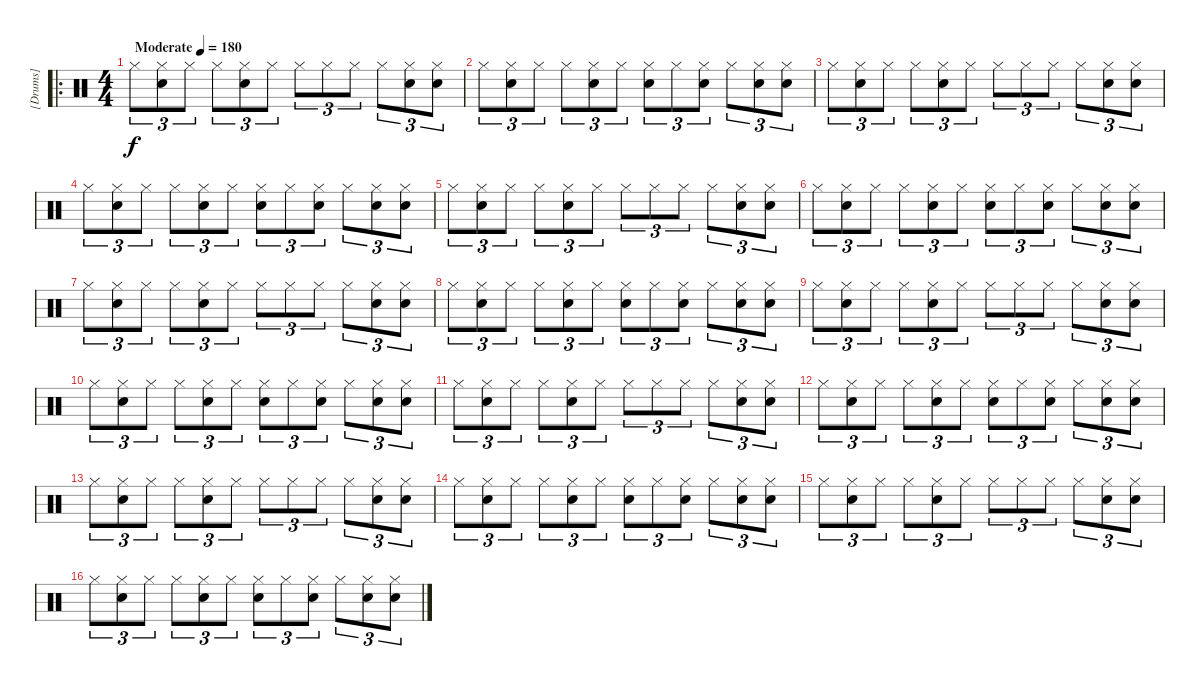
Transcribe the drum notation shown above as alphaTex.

\track ("[Drums]" "[Drums]") {instrument percussion}
\staff {score}
\articulation defaults
\ro
\ts (4 4)
\tempo (180 "Moderate")
\clef neutral
\ks c "Hi-Hat (closed)".8{tu (3 2) dy f}
("Hi-Hat (closed)" "Snare (hit) 2").8{tu (3 2)} "Hi-Hat (closed)".8{tu (3 2)} "Hi-Hat (closed)".8{tu (3 2)} ("Hi-Hat (closed)" "Snare (hit) 2").8{tu (3 2)} "Hi-Hat (closed)".8{tu (3 2)} "Hi-Hat (closed)".8{tu (3 2)} "Hi-Hat (closed)".8{tu (3 2)} "Hi-Hat (closed)".8{tu (3 2)} "Hi-Hat (closed)".8{tu (3 2)} ("Hi-Hat (closed)" "Snare (hit) 2").8{tu (3 2)} ("Hi-Hat (closed)" "Snare (hit) 2").8{tu (3 2)} |
"Hi-Hat (closed)".8{tu (3 2)} ("Hi-Hat (closed)" "Snare (hit) 2").8{tu (3 2)} "Hi-Hat (closed)".8{tu (3 2)} "Hi-Hat (closed)".8{tu (3 2)} ("Hi-Hat (closed)" "Snare (hit) 2").8{tu (3 2)} "Hi-Hat (closed)".8{tu (3 2)} ("Hi-Hat (closed)" "Snare (hit) 2").8{tu (3 2)} "Hi-Hat (closed)".8{tu (3 2)} ("Hi-Hat (closed)" "Snare (hit) 2").8{tu (3 2)} "Hi-Hat (closed)".8{tu (3 2)} ("Hi-Hat (closed)" "Snare (hit) 2").8{tu (3 2)} ("Hi-Hat (closed)" "Snare (hit) 2").8{tu (3 2)} |
"Hi-Hat (closed)".8{tu (3 2)} ("Hi-Hat (closed)" "Snare (hit) 2").8{tu (3 2)} "Hi-Hat (closed)".8{tu (3 2)} "Hi-Hat (closed)".8{tu (3 2)} ("Hi-Hat (closed)" "Snare (hit) 2").8{tu (3 2)} "Hi-Hat (closed)".8{tu (3 2)} "Hi-Hat (closed)".8{tu (3 2)} "Hi-Hat (closed)".8{tu (3 2)} "Hi-Hat (closed)".8{tu (3 2)} "Hi-Hat (closed)".8{tu (3 2)} ("Hi-Hat (closed)" "Snare (hit) 2").8{tu (3 2)} ("Hi-Hat (closed)" "Snare (hit) 2").8{tu (3 2)} |
"Hi-Hat (closed)".8{tu (3 2)} ("Hi-Hat (closed)" "Snare (hit) 2").8{tu (3 2)} "Hi-Hat (closed)".8{tu (3 2)} "Hi-Hat (closed)".8{tu (3 2)} ("Hi-Hat (closed)" "Snare (hit) 2").8{tu (3 2)} "Hi-Hat (closed)".8{tu (3 2)} ("Hi-Hat (closed)" "Snare (hit) 2").8{tu (3 2)} "Hi-Hat (closed)".8{tu (3 2)} ("Hi-Hat (closed)" "Snare (hit) 2").8{tu (3 2)} "Hi-Hat (closed)".8{tu (3 2)} ("Hi-Hat (closed)" "Snare (hit) 2").8{tu (3 2)} ("Hi-Hat (closed)" "Snare (hit) 2").8{tu (3 2)} |
"Hi-Hat (closed)".8{tu (3 2)} ("Hi-Hat (closed)" "Snare (hit) 2").8{tu (3 2)} "Hi-Hat (closed)".8{tu (3 2)} "Hi-Hat (closed)".8{tu (3 2)} ("Hi-Hat (closed)" "Snare (hit) 2").8{tu (3 2)} "Hi-Hat (closed)".8{tu (3 2)} "Hi-Hat (closed)".8{tu (3 2)} "Hi-Hat (closed)".8{tu (3 2)} "Hi-Hat (closed)".8{tu (3 2)} "Hi-Hat (closed)".8{tu (3 2)} ("Hi-Hat (closed)" "Snare (hit) 2").8{tu (3 2)} ("Hi-Hat (closed)" "Snare (hit) 2").8{tu (3 2)} |
"Hi-Hat (closed)".8{tu (3 2)} ("Hi-Hat (closed)" "Snare (hit) 2").8{tu (3 2)} "Hi-Hat (closed)".8{tu (3 2)} "Hi-Hat (closed)".8{tu (3 2)} ("Hi-Hat (closed)" "Snare (hit) 2").8{tu (3 2)} "Hi-Hat (closed)".8{tu (3 2)} ("Hi-Hat (closed)" "Snare (hit) 2").8{tu (3 2)} "Hi-Hat (closed)".8{tu (3 2)} ("Hi-Hat (closed)" "Snare (hit) 2").8{tu (3 2)} "Hi-Hat (closed)".8{tu (3 2)} ("Hi-Hat (closed)" "Snare (hit) 2").8{tu (3 2)} ("Hi-Hat (closed)" "Snare (hit) 2").8{tu (3 2)} |
"Hi-Hat (closed)".8{tu (3 2)} ("Hi-Hat (closed)" "Snare (hit) 2").8{tu (3 2)} "Hi-Hat (closed)".8{tu (3 2)} "Hi-Hat (closed)".8{tu (3 2)} ("Hi-Hat (closed)" "Snare (hit) 2").8{tu (3 2)} "Hi-Hat (closed)".8{tu (3 2)} "Hi-Hat (closed)".8{tu (3 2)} "Hi-Hat (closed)".8{tu (3 2)} "Hi-Hat (closed)".8{tu (3 2)} "Hi-Hat (closed)".8{tu (3 2)} ("Hi-Hat (closed)" "Snare (hit) 2").8{tu (3 2)} ("Hi-Hat (closed)" "Snare (hit) 2").8{tu (3 2)} |
"Hi-Hat (closed)".8{tu (3 2)} ("Hi-Hat (closed)" "Snare (hit) 2").8{tu (3 2)} "Hi-Hat (closed)".8{tu (3 2)} "Hi-Hat (closed)".8{tu (3 2)} ("Hi-Hat (closed)" "Snare (hit) 2").8{tu (3 2)} "Hi-Hat (closed)".8{tu (3 2)} ("Hi-Hat (closed)" "Snare (hit) 2").8{tu (3 2)} "Hi-Hat (closed)".8{tu (3 2)} ("Hi-Hat (closed)" "Snare (hit) 2").8{tu (3 2)} "Hi-Hat (closed)".8{tu (3 2)} ("Hi-Hat (closed)" "Snare (hit) 2").8{tu (3 2)} ("Hi-Hat (closed)" "Snare (hit) 2").8{tu (3 2)} |
"Hi-Hat (closed)".8{tu (3 2)} ("Hi-Hat (closed)" "Snare (hit) 2").8{tu (3 2)} "Hi-Hat (closed)".8{tu (3 2)} "Hi-Hat (closed)".8{tu (3 2)} ("Hi-Hat (closed)" "Snare (hit) 2").8{tu (3 2)} "Hi-Hat (closed)".8{tu (3 2)} "Hi-Hat (closed)".8{tu (3 2)} "Hi-Hat (closed)".8{tu (3 2)} "Hi-Hat (closed)".8{tu (3 2)} "Hi-Hat (closed)".8{tu (3 2)} ("Hi-Hat (closed)" "Snare (hit) 2").8{tu (3 2)} ("Hi-Hat (closed)" "Snare (hit) 2").8{tu (3 2)} |
"Hi-Hat (closed)".8{tu (3 2)} ("Hi-Hat (closed)" "Snare (hit) 2").8{tu (3 2)} "Hi-Hat (closed)".8{tu (3 2)} "Hi-Hat (closed)".8{tu (3 2)} ("Hi-Hat (closed)" "Snare (hit) 2").8{tu (3 2)} "Hi-Hat (closed)".8{tu (3 2)} ("Hi-Hat (closed)" "Snare (hit) 2").8{tu (3 2)} "Hi-Hat (closed)".8{tu (3 2)} ("Hi-Hat (closed)" "Snare (hit) 2").8{tu (3 2)} "Hi-Hat (closed)".8{tu (3 2)} ("Hi-Hat (closed)" "Snare (hit) 2").8{tu (3 2)} ("Hi-Hat (closed)" "Snare (hit) 2").8{tu (3 2)} |
"Hi-Hat (closed)".8{tu (3 2)} ("Hi-Hat (closed)" "Snare (hit) 2").8{tu (3 2)} "Hi-Hat (closed)".8{tu (3 2)} "Hi-Hat (closed)".8{tu (3 2)} ("Hi-Hat (closed)" "Snare (hit) 2").8{tu (3 2)} "Hi-Hat (closed)".8{tu (3 2)} "Hi-Hat (closed)".8{tu (3 2)} "Hi-Hat (closed)".8{tu (3 2)} "Hi-Hat (closed)".8{tu (3 2)} "Hi-Hat (closed)".8{tu (3 2)} ("Hi-Hat (closed)" "Snare (hit) 2").8{tu (3 2)} ("Hi-Hat (closed)" "Snare (hit) 2").8{tu (3 2)} |
"Hi-Hat (closed)".8{tu (3 2)} ("Hi-Hat (closed)" "Snare (hit) 2").8{tu (3 2)} "Hi-Hat (closed)".8{tu (3 2)} "Hi-Hat (closed)".8{tu (3 2)} ("Hi-Hat (closed)" "Snare (hit) 2").8{tu (3 2)} "Hi-Hat (closed)".8{tu (3 2)} ("Hi-Hat (closed)" "Snare (hit) 2").8{tu (3 2)} "Hi-Hat (closed)".8{tu (3 2)} ("Hi-Hat (closed)" "Snare (hit) 2").8{tu (3 2)} "Hi-Hat (closed)".8{tu (3 2)} ("Hi-Hat (closed)" "Snare (hit) 2").8{tu (3 2)} ("Hi-Hat (closed)" "Snare (hit) 2").8{tu (3 2)} |
"Hi-Hat (closed)".8{tu (3 2)} ("Hi-Hat (closed)" "Snare (hit) 2").8{tu (3 2)} "Hi-Hat (closed)".8{tu (3 2)} "Hi-Hat (closed)".8{tu (3 2)} ("Hi-Hat (closed)" "Snare (hit) 2").8{tu (3 2)} "Hi-Hat (closed)".8{tu (3 2)} "Hi-Hat (closed)".8{tu (3 2)} "Hi-Hat (closed)".8{tu (3 2)} "Hi-Hat (closed)".8{tu (3 2)} "Hi-Hat (closed)".8{tu (3 2)} ("Hi-Hat (closed)" "Snare (hit) 2").8{tu (3 2)} ("Hi-Hat (closed)" "Snare (hit) 2").8{tu (3 2)} |
"Hi-Hat (closed)".8{tu (3 2)} ("Hi-Hat (closed)" "Snare (hit) 2").8{tu (3 2)} "Hi-Hat (closed)".8{tu (3 2)} "Hi-Hat (closed)".8{tu (3 2)} ("Hi-Hat (closed)" "Snare (hit) 2").8{tu (3 2)} "Hi-Hat (closed)".8{tu (3 2)} ("Hi-Hat (closed)" "Snare (hit) 2").8{tu (3 2)} "Hi-Hat (closed)".8{tu (3 2)} ("Hi-Hat (closed)" "Snare (hit) 2").8{tu (3 2)} "Hi-Hat (closed)".8{tu (3 2)} ("Hi-Hat (closed)" "Snare (hit) 2").8{tu (3 2)} ("Hi-Hat (closed)" "Snare (hit) 2").8{tu (3 2)} |
"Hi-Hat (closed)".8{tu (3 2)} ("Hi-Hat (closed)" "Snare (hit) 2").8{tu (3 2)} "Hi-Hat (closed)".8{tu (3 2)} "Hi-Hat (closed)".8{tu (3 2)} ("Hi-Hat (closed)" "Snare (hit) 2").8{tu (3 2)} "Hi-Hat (closed)".8{tu (3 2)} "Hi-Hat (closed)".8{tu (3 2)} "Hi-Hat (closed)".8{tu (3 2)} "Hi-Hat (closed)".8{tu (3 2)} "Hi-Hat (closed)".8{tu (3 2)} ("Hi-Hat (closed)" "Snare (hit) 2").8{tu (3 2)} ("Hi-Hat (closed)" "Snare (hit) 2").8{tu (3 2)} |
"Hi-Hat (closed)".8{tu (3 2)} ("Hi-Hat (closed)" "Snare (hit) 2").8{tu (3 2)} "Hi-Hat (closed)".8{tu (3 2)} "Hi-Hat (closed)".8{tu (3 2)} ("Hi-Hat (closed)" "Snare (hit) 2").8{tu (3 2)} "Hi-Hat (closed)".8{tu (3 2)} ("Hi-Hat (closed)" "Snare (hit) 2").8{tu (3 2)} "Hi-Hat (closed)".8{tu (3 2)} ("Hi-Hat (closed)" "Snare (hit) 2").8{tu (3 2)} "Hi-Hat (closed)".8{tu (3 2)} ("Hi-Hat (closed)" "Snare (hit) 2").8{tu (3 2)} ("Hi-Hat (closed)" "Snare (hit) 2").8{tu (3 2)}
